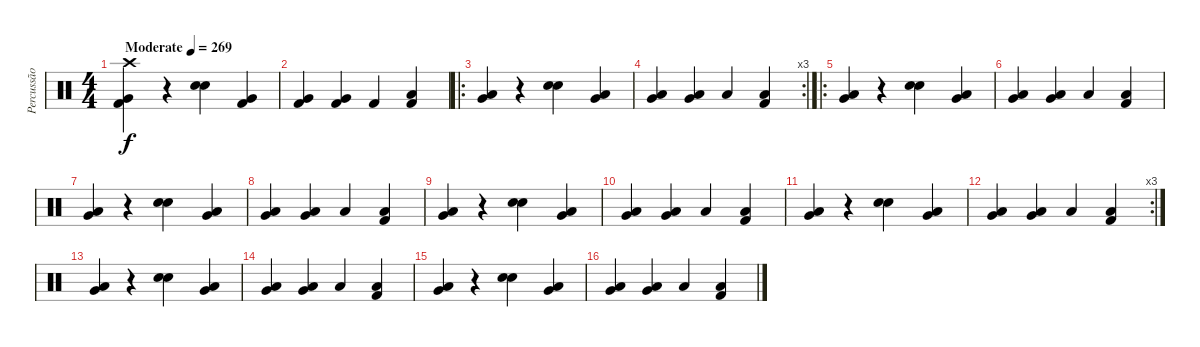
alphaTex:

\track ("Percussão" "Percussão") {instrument percussion}
\staff {score}
\articulation defaults
\ts (4 4)
\tempo (269 "Moderate")
\clef neutral
\ks c
("Crash high (hit)" "Very Low Tom (hit)" "Kick (hit) 2").4{dy f} r.4 ("Electric Snare (hit)" "Snare (hit) 2").4 ("Very Low Tom (hit)" "Kick (hit) 2").4 |
("Very Low Tom (hit)" "Kick (hit) 2").4 ("Very Low Tom (hit)" "Kick (hit) 2").4 "Kick (hit) 2".4 ("Low Floor Tom (hit)" "Kick (hit) 2").4 |
\ro
("Very Low Tom (hit)" "Low Floor Tom (hit)").4 r.4 ("Snare (hit) 2" "Electric Snare (hit)").4 ("Very Low Tom (hit)" "Low Floor Tom (hit)").4 |
\rc 3
("Very Low Tom (hit)" "Low Floor Tom (hit)").4 ("Very Low Tom (hit)" "Low Floor Tom (hit)").4 "Low Floor Tom (hit)".4 ("Low Floor Tom (hit)" "Kick (hit) 2").4 |
\ro
("Very Low Tom (hit)" "Low Floor Tom (hit)").4 r.4 ("Snare (hit) 2" "Electric Snare (hit)").4 ("Very Low Tom (hit)" "Low Floor Tom (hit)").4 |
("Very Low Tom (hit)" "Low Floor Tom (hit)").4 ("Very Low Tom (hit)" "Low Floor Tom (hit)").4 "Low Floor Tom (hit)".4 ("Low Floor Tom (hit)" "Kick (hit) 2").4 |
("Very Low Tom (hit)" "Low Floor Tom (hit)").4 r.4 ("Snare (hit) 2" "Electric Snare (hit)").4 ("Very Low Tom (hit)" "Low Floor Tom (hit)").4 |
("Very Low Tom (hit)" "Low Floor Tom (hit)").4 ("Very Low Tom (hit)" "Low Floor Tom (hit)").4 "Low Floor Tom (hit)".4 ("Low Floor Tom (hit)" "Kick (hit) 2").4 |
("Very Low Tom (hit)" "Low Floor Tom (hit)").4 r.4 ("Snare (hit) 2" "Electric Snare (hit)").4 ("Very Low Tom (hit)" "Low Floor Tom (hit)").4 |
("Very Low Tom (hit)" "Low Floor Tom (hit)").4 ("Very Low Tom (hit)" "Low Floor Tom (hit)").4 "Low Floor Tom (hit)".4 ("Low Floor Tom (hit)" "Kick (hit) 2").4 |
("Very Low Tom (hit)" "Low Floor Tom (hit)").4 r.4 ("Snare (hit) 2" "Electric Snare (hit)").4 ("Very Low Tom (hit)" "Low Floor Tom (hit)").4 |
\rc 3
("Very Low Tom (hit)" "Low Floor Tom (hit)").4 ("Very Low Tom (hit)" "Low Floor Tom (hit)").4 "Low Floor Tom (hit)".4 ("Low Floor Tom (hit)" "Kick (hit) 2").4 |
("Very Low Tom (hit)" "Low Floor Tom (hit)").4 r.4 ("Snare (hit) 2" "Electric Snare (hit)").4 ("Very Low Tom (hit)" "Low Floor Tom (hit)").4 |
("Very Low Tom (hit)" "Low Floor Tom (hit)").4 ("Very Low Tom (hit)" "Low Floor Tom (hit)").4 "Low Floor Tom (hit)".4 ("Low Floor Tom (hit)" "Kick (hit) 2").4 |
("Very Low Tom (hit)" "Low Floor Tom (hit)").4 r.4 ("Snare (hit) 2" "Electric Snare (hit)").4 ("Very Low Tom (hit)" "Low Floor Tom (hit)").4 |
("Very Low Tom (hit)" "Low Floor Tom (hit)").4 ("Very Low Tom (hit)" "Low Floor Tom (hit)").4 "Low Floor Tom (hit)".4 ("Low Floor Tom (hit)" "Kick (hit) 2").4
